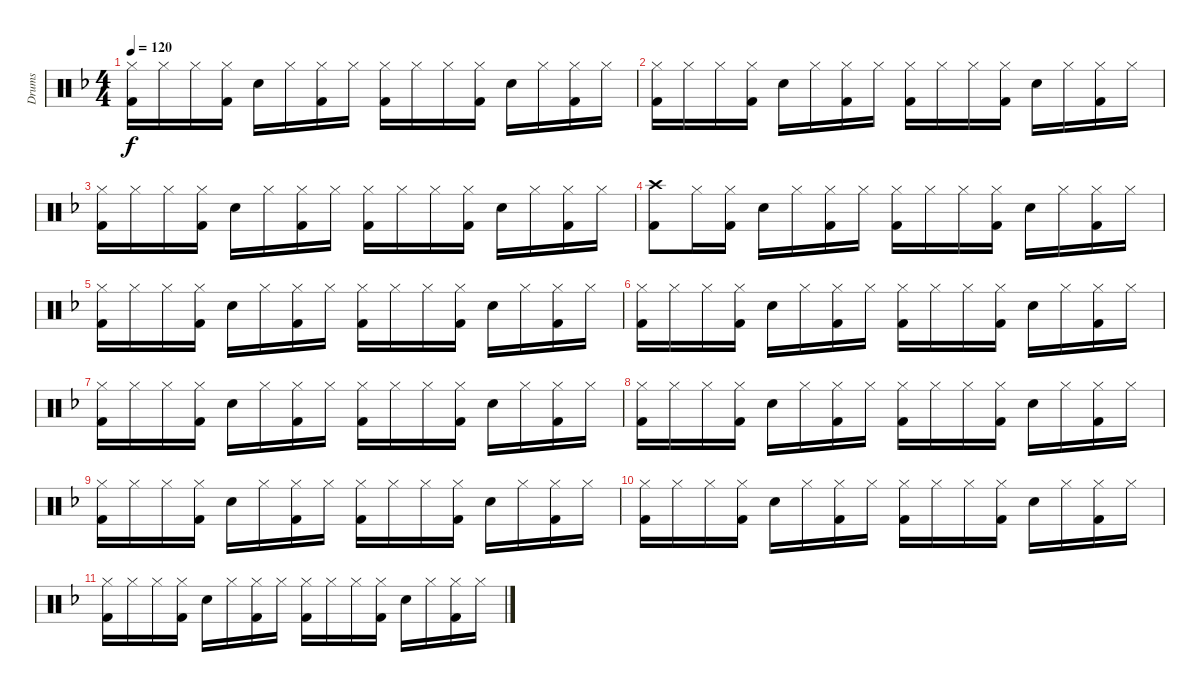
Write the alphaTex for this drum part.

\track ("Drums" "Drums") {instrument percussion}
\staff {score}
\articulation defaults
\ts (4 4)
\tempo 120
\clef neutral
\ks dminor
("Kick (hit) 2" "Hi-Hat (closed)").16{dy f} "Hi-Hat (closed)".16 "Hi-Hat (closed)".16 ("Kick (hit) 2" "Hi-Hat (closed)").16 "Snare (hit) 2".16 "Hi-Hat (closed)".16 ("Kick (hit) 2" "Hi-Hat (closed)").16 "Hi-Hat (closed)".16 ("Kick (hit) 2" "Hi-Hat (closed)").16 "Hi-Hat (closed)".16 "Hi-Hat (closed)".16 ("Kick (hit) 2" "Hi-Hat (closed)").16 "Snare (hit) 2".16 "Hi-Hat (closed)".16 ("Kick (hit) 2" "Hi-Hat (closed)").16 "Hi-Hat (closed)".16 |
("Kick (hit) 2" "Hi-Hat (closed)").16 "Hi-Hat (closed)".16 "Hi-Hat (closed)".16 ("Kick (hit) 2" "Hi-Hat (closed)").16 "Snare (hit) 2".16 "Hi-Hat (closed)".16 ("Kick (hit) 2" "Hi-Hat (closed)").16 "Hi-Hat (closed)".16 ("Kick (hit) 2" "Hi-Hat (closed)").16 "Hi-Hat (closed)".16 "Hi-Hat (closed)".16 ("Kick (hit) 2" "Hi-Hat (closed)").16 "Snare (hit) 2".16 "Hi-Hat (closed)".16 ("Kick (hit) 2" "Hi-Hat (closed)").16 "Hi-Hat (closed)".16 |
("Kick (hit) 2" "Hi-Hat (closed)").16 "Hi-Hat (closed)".16 "Hi-Hat (closed)".16 ("Kick (hit) 2" "Hi-Hat (closed)").16 "Snare (hit) 2".16 "Hi-Hat (closed)".16 ("Kick (hit) 2" "Hi-Hat (closed)").16 "Hi-Hat (closed)".16 ("Kick (hit) 2" "Hi-Hat (closed)").16 "Hi-Hat (closed)".16 "Hi-Hat (closed)".16 ("Kick (hit) 2" "Hi-Hat (closed)").16 "Snare (hit) 2".16 "Hi-Hat (closed)".16 ("Kick (hit) 2" "Hi-Hat (closed)").16 "Hi-Hat (closed)".16 |
("Kick (hit) 2" "Crash high (hit)").8 "Hi-Hat (closed)".16 ("Kick (hit) 2" "Hi-Hat (closed)").16 "Snare (hit) 2".16 "Hi-Hat (closed)".16 ("Kick (hit) 2" "Hi-Hat (closed)").16 "Hi-Hat (closed)".16 ("Kick (hit) 2" "Hi-Hat (closed)").16 "Hi-Hat (closed)".16 "Hi-Hat (closed)".16 ("Kick (hit) 2" "Hi-Hat (closed)").16 "Snare (hit) 2".16 "Hi-Hat (closed)".16 ("Kick (hit) 2" "Hi-Hat (closed)").16 "Hi-Hat (closed)".16 |
("Kick (hit) 2" "Hi-Hat (closed)").16 "Hi-Hat (closed)".16 "Hi-Hat (closed)".16 ("Kick (hit) 2" "Hi-Hat (closed)").16 "Snare (hit) 2".16 "Hi-Hat (closed)".16 ("Kick (hit) 2" "Hi-Hat (closed)").16 "Hi-Hat (closed)".16 ("Kick (hit) 2" "Hi-Hat (closed)").16 "Hi-Hat (closed)".16 "Hi-Hat (closed)".16 ("Kick (hit) 2" "Hi-Hat (closed)").16 "Snare (hit) 2".16 "Hi-Hat (closed)".16 ("Kick (hit) 2" "Hi-Hat (closed)").16 "Hi-Hat (closed)".16 |
("Kick (hit) 2" "Hi-Hat (closed)").16 "Hi-Hat (closed)".16 "Hi-Hat (closed)".16 ("Kick (hit) 2" "Hi-Hat (closed)").16 "Snare (hit) 2".16 "Hi-Hat (closed)".16 ("Kick (hit) 2" "Hi-Hat (closed)").16 "Hi-Hat (closed)".16 ("Kick (hit) 2" "Hi-Hat (closed)").16 "Hi-Hat (closed)".16 "Hi-Hat (closed)".16 ("Kick (hit) 2" "Hi-Hat (closed)").16 "Snare (hit) 2".16 "Hi-Hat (closed)".16 ("Kick (hit) 2" "Hi-Hat (closed)").16 "Hi-Hat (closed)".16 |
("Kick (hit) 2" "Hi-Hat (closed)").16 "Hi-Hat (closed)".16 "Hi-Hat (closed)".16 ("Kick (hit) 2" "Hi-Hat (closed)").16 "Snare (hit) 2".16 "Hi-Hat (closed)".16 ("Kick (hit) 2" "Hi-Hat (closed)").16 "Hi-Hat (closed)".16 ("Kick (hit) 2" "Hi-Hat (closed)").16 "Hi-Hat (closed)".16 "Hi-Hat (closed)".16 ("Kick (hit) 2" "Hi-Hat (closed)").16 "Snare (hit) 2".16 "Hi-Hat (closed)".16 ("Kick (hit) 2" "Hi-Hat (closed)").16 "Hi-Hat (closed)".16 |
("Kick (hit) 2" "Hi-Hat (closed)").16 "Hi-Hat (closed)".16 "Hi-Hat (closed)".16 ("Kick (hit) 2" "Hi-Hat (closed)").16 "Snare (hit) 2".16 "Hi-Hat (closed)".16 ("Kick (hit) 2" "Hi-Hat (closed)").16 "Hi-Hat (closed)".16 ("Kick (hit) 2" "Hi-Hat (closed)").16 "Hi-Hat (closed)".16 "Hi-Hat (closed)".16 ("Kick (hit) 2" "Hi-Hat (closed)").16 "Snare (hit) 2".16 "Hi-Hat (closed)".16 ("Kick (hit) 2" "Hi-Hat (closed)").16 "Hi-Hat (closed)".16 |
("Kick (hit) 2" "Hi-Hat (closed)").16 "Hi-Hat (closed)".16 "Hi-Hat (closed)".16 ("Kick (hit) 2" "Hi-Hat (closed)").16 "Snare (hit) 2".16 "Hi-Hat (closed)".16 ("Kick (hit) 2" "Hi-Hat (closed)").16 "Hi-Hat (closed)".16 ("Kick (hit) 2" "Hi-Hat (closed)").16 "Hi-Hat (closed)".16 "Hi-Hat (closed)".16 ("Kick (hit) 2" "Hi-Hat (closed)").16 "Snare (hit) 2".16 "Hi-Hat (closed)".16 ("Kick (hit) 2" "Hi-Hat (closed)").16 "Hi-Hat (closed)".16 |
("Kick (hit) 2" "Hi-Hat (closed)").16 "Hi-Hat (closed)".16 "Hi-Hat (closed)".16 ("Kick (hit) 2" "Hi-Hat (closed)").16 "Snare (hit) 2".16 "Hi-Hat (closed)".16 ("Kick (hit) 2" "Hi-Hat (closed)").16 "Hi-Hat (closed)".16 ("Kick (hit) 2" "Hi-Hat (closed)").16 "Hi-Hat (closed)".16 "Hi-Hat (closed)".16 ("Kick (hit) 2" "Hi-Hat (closed)").16 "Snare (hit) 2".16 "Hi-Hat (closed)".16 ("Kick (hit) 2" "Hi-Hat (closed)").16 "Hi-Hat (closed)".16 |
("Kick (hit) 2" "Hi-Hat (closed)").16 "Hi-Hat (closed)".16 "Hi-Hat (closed)".16 ("Kick (hit) 2" "Hi-Hat (closed)").16 "Snare (hit) 2".16 "Hi-Hat (closed)".16 ("Kick (hit) 2" "Hi-Hat (closed)").16 "Hi-Hat (closed)".16 ("Kick (hit) 2" "Hi-Hat (closed)").16 "Hi-Hat (closed)".16 "Hi-Hat (closed)".16 ("Kick (hit) 2" "Hi-Hat (closed)").16 "Snare (hit) 2".16 "Hi-Hat (closed)".16 ("Kick (hit) 2" "Hi-Hat (closed)").16 "Hi-Hat (closed)".16
